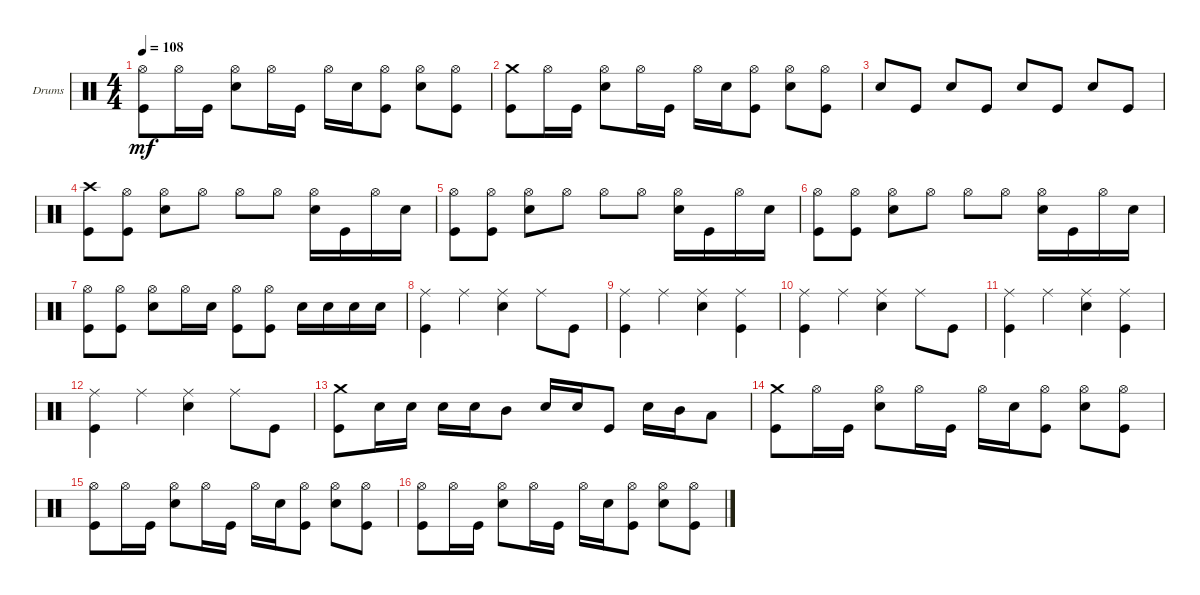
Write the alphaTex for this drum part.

\defaultSystemsLayout 4
\bracketExtendMode groupsimilarinstruments
\firstSystemTrackNameOrientation horizontal
\otherSystemsTrackNameOrientation horizontal
\track ("Drumkit" "Drums") {instrument percussion}
\staff {score}
\articulation defaults
\ts (4 4)
\tempo 108
\clef neutral
\ks c
("Kick (hit)" "Hi-Hat (open)").8{dy mf} "Hi-Hat (open)".16 "Kick (hit)".16 ("Snare (hit) 2" "Hi-Hat (open)").8 "Hi-Hat (open)".16 "Kick (hit)".16 "Hi-Hat (open)".16 "Snare (hit) 2".16 ("Kick (hit)" "Hi-Hat (open)").8 ("Snare (hit) 2" "Hi-Hat (open)").8 ("Kick (hit)" "Hi-Hat (open)").8 |
("Kick (hit)" "Crash medium (hit)").8 "Hi-Hat (open)".16 "Kick (hit)".16 ("Snare (hit) 2" "Hi-Hat (open)").8 "Hi-Hat (open)".16 "Kick (hit)".16 "Hi-Hat (open)".16 "Snare (hit) 2".16 ("Kick (hit)" "Hi-Hat (open)").8 ("Snare (hit) 2" "Hi-Hat (open)").8 ("Kick (hit)" "Hi-Hat (open)").8 |
"Snare (hit) 2".8 "Kick (hit)".8 "Snare (hit) 2".8 "Kick (hit)".8 "Snare (hit) 2".8 "Kick (hit)".8 "Snare (hit) 2".8 "Kick (hit)".8 |
("Kick (hit)" "Crash high (hit)").8 ("Kick (hit)" "Hi-Hat (open)").8 ("Snare (hit) 2" "Hi-Hat (open)").8 "Hi-Hat (open)".8 "Hi-Hat (open)".8 "Hi-Hat (open)".8 ("Snare (hit) 2" "Hi-Hat (open)").16 "Kick (hit)".16 "Hi-Hat (open)".16 "Snare (hit) 2".16 |
("Kick (hit)" "Hi-Hat (open)").8 ("Kick (hit)" "Hi-Hat (open)").8 ("Snare (hit) 2" "Hi-Hat (open)").8 "Hi-Hat (open)".8 "Hi-Hat (open)".8 "Hi-Hat (open)".8 ("Snare (hit) 2" "Hi-Hat (open)").16 "Kick (hit)".16 "Hi-Hat (open)".16 "Snare (hit) 2".16 |
("Kick (hit)" "Hi-Hat (open)").8 ("Kick (hit)" "Hi-Hat (open)").8 ("Snare (hit) 2" "Hi-Hat (open)").8 "Hi-Hat (open)".8 "Hi-Hat (open)".8 "Hi-Hat (open)".8 ("Snare (hit) 2" "Hi-Hat (open)").16 "Kick (hit)".16 "Hi-Hat (open)".16 "Snare (hit) 2".16 |
("Kick (hit)" "Hi-Hat (open)").8 ("Kick (hit)" "Hi-Hat (open)").8 ("Snare (hit) 2" "Hi-Hat (open)").8 "Hi-Hat (open)".16 "Snare (hit) 2".16 ("Kick (hit)" "Hi-Hat (open)").8 ("Kick (hit)" "Hi-Hat (open)").8 "Snare (hit) 2".16 "Snare (hit) 2".16 "Snare (hit) 2".16 "Snare (hit) 2".16 |
("Kick (hit)" "Ride (middle)").4 "Ride (middle)".4 ("Snare (hit) 2" "Ride (middle)").4 "Ride (middle)".8 "Kick (hit)".8 |
("Kick (hit)" "Ride (middle)").4 "Ride (middle)".4 ("Snare (hit) 2" "Ride (middle)").4 ("Kick (hit)" "Ride (middle)").4 |
("Kick (hit)" "Ride (middle)").4 "Ride (middle)".4 ("Snare (hit) 2" "Ride (middle)").4 "Ride (middle)".8 "Kick (hit)".8 |
("Kick (hit)" "Ride (middle)").4 "Ride (middle)".4 ("Snare (hit) 2" "Ride (middle)").4 ("Kick (hit)" "Ride (middle)").4 |
("Kick (hit)" "Ride (middle)").4 "Ride (middle)".4 ("Snare (hit) 2" "Ride (middle)").4 "Ride (middle)".8 "Kick (hit)".8 |
("Kick (hit)" "Crash medium (hit)").8 "Snare (hit) 2".16 "Snare (hit) 2".16 "Snare (hit) 2".16 "Snare (hit) 2".16 "Mid Tom (hit)".8 "Snare (hit) 2".16 "Snare (hit) 2".16 "Kick (hit)".8 "Snare (hit) 2".16 "Mid Tom (hit)".16 "Low Tom (hit)".8 |
("Kick (hit)" "Crash medium (hit)").8 "Hi-Hat (open)".16 "Kick (hit)".16 ("Snare (hit) 2" "Hi-Hat (open)").8 "Hi-Hat (open)".16 "Kick (hit)".16 "Hi-Hat (open)".16 "Snare (hit) 2".16 ("Kick (hit)" "Hi-Hat (open)").8 ("Snare (hit) 2" "Hi-Hat (open)").8 ("Kick (hit)" "Hi-Hat (open)").8 |
("Kick (hit)" "Hi-Hat (open)").8 "Hi-Hat (open)".16 "Kick (hit)".16 ("Snare (hit) 2" "Hi-Hat (open)").8 "Hi-Hat (open)".16 "Kick (hit)".16 "Hi-Hat (open)".16 "Snare (hit) 2".16 ("Kick (hit)" "Hi-Hat (open)").8 ("Snare (hit) 2" "Hi-Hat (open)").8 ("Kick (hit)" "Hi-Hat (open)").8 |
("Kick (hit)" "Hi-Hat (open)").8 "Hi-Hat (open)".16 "Kick (hit)".16 ("Snare (hit) 2" "Hi-Hat (open)").8 "Hi-Hat (open)".16 "Kick (hit)".16 "Hi-Hat (open)".16 "Snare (hit) 2".16 ("Kick (hit)" "Hi-Hat (open)").8 ("Snare (hit) 2" "Hi-Hat (open)").8 ("Kick (hit)" "Hi-Hat (open)").8
